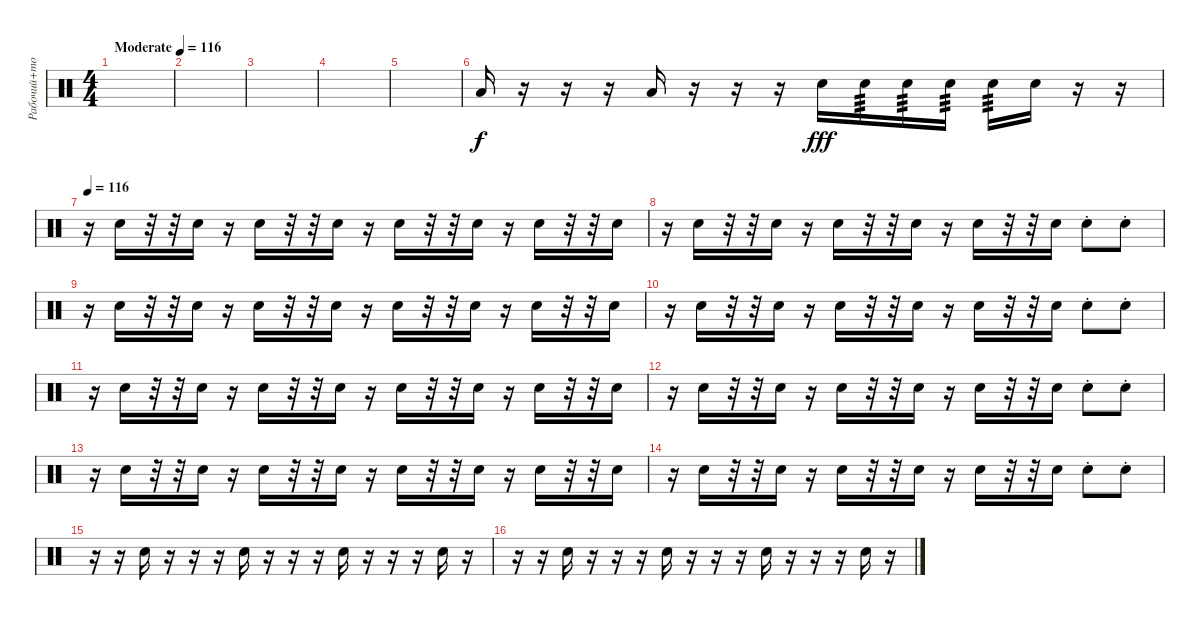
\track ("Рабочий+томы" "Рабочий+то") {instrument percussion}
\staff {score}
\articulation defaults
\ts (4 4)
\tempo (116 "Moderate")
\clef neutral
\ks c
|
|
|
|
|
"Low Floor Tom (hit)".16 r.16 r.16 r.16 "Low Floor Tom (hit)".16 r.16 r.16 r.16 "Snare (hit) 2".16{dy fff} "Snare (hit) 2".16{tp 3} "Snare (hit) 2".16{tp 3} "Snare (hit) 2".16{tp 3} "Snare (hit) 2".16{tp 3} "Snare (hit) 2".16 r.16 r.16 |
\tempo 116
r.16 "Snare (hit) 2".16 r.32 r.32 "Snare (hit) 2".16 r.16 "Snare (hit) 2".16 r.32 r.32 "Snare (hit) 2".16 r.16 "Snare (hit) 2".16 r.32 r.32 "Snare (hit) 2".16 r.16 "Snare (hit) 2".16 r.32 r.32 "Snare (hit) 2".16 |
r.16 "Snare (hit) 2".16 r.32 r.32 "Snare (hit) 2".16 r.16 "Snare (hit) 2".16 r.32 r.32 "Snare (hit) 2".16 r.16 "Snare (hit) 2".16 r.32 r.32 "Snare (hit) 2".16 "Snare (hit) 2"{st}.8 "Snare (hit) 2"{st}.8 |
r.16 "Snare (hit) 2".16 r.32 r.32 "Snare (hit) 2".16 r.16 "Snare (hit) 2".16 r.32 r.32 "Snare (hit) 2".16 r.16 "Snare (hit) 2".16 r.32 r.32 "Snare (hit) 2".16 r.16 "Snare (hit) 2".16 r.32 r.32 "Snare (hit) 2".16 |
r.16 "Snare (hit) 2".16 r.32 r.32 "Snare (hit) 2".16 r.16 "Snare (hit) 2".16 r.32 r.32 "Snare (hit) 2".16 r.16 "Snare (hit) 2".16 r.32 r.32 "Snare (hit) 2".16 "Snare (hit) 2"{st}.8 "Snare (hit) 2"{st}.8 |
r.16 "Snare (hit) 2".16 r.32 r.32 "Snare (hit) 2".16 r.16 "Snare (hit) 2".16 r.32 r.32 "Snare (hit) 2".16 r.16 "Snare (hit) 2".16 r.32 r.32 "Snare (hit) 2".16 r.16 "Snare (hit) 2".16 r.32 r.32 "Snare (hit) 2".16 |
r.16 "Snare (hit) 2".16 r.32 r.32 "Snare (hit) 2".16 r.16 "Snare (hit) 2".16 r.32 r.32 "Snare (hit) 2".16 r.16 "Snare (hit) 2".16 r.32 r.32 "Snare (hit) 2".16 "Snare (hit) 2"{st}.8 "Snare (hit) 2"{st}.8 |
r.16 "Snare (hit) 2".16 r.32 r.32 "Snare (hit) 2".16 r.16 "Snare (hit) 2".16 r.32 r.32 "Snare (hit) 2".16 r.16 "Snare (hit) 2".16 r.32 r.32 "Snare (hit) 2".16 r.16 "Snare (hit) 2".16 r.32 r.32 "Snare (hit) 2".16 |
r.16 "Snare (hit) 2".16 r.32 r.32 "Snare (hit) 2".16 r.16 "Snare (hit) 2".16 r.32 r.32 "Snare (hit) 2".16 r.16 "Snare (hit) 2".16 r.32 r.32 "Snare (hit) 2".16 "Snare (hit) 2"{st}.8 "Snare (hit) 2"{st}.8 |
r.16 r.16 "Snare (hit) 2".16 r.16 r.16 r.16 "Snare (hit) 2".16 r.16 r.16 r.16 "Snare (hit) 2".16 r.16 r.16 r.16 "Snare (hit) 2".16 r.16 |
r.16 r.16 "Snare (hit) 2".16 r.16 r.16 r.16 "Snare (hit) 2".16 r.16 r.16 r.16 "Snare (hit) 2".16 r.16 r.16 r.16 "Snare (hit) 2".16 r.16
